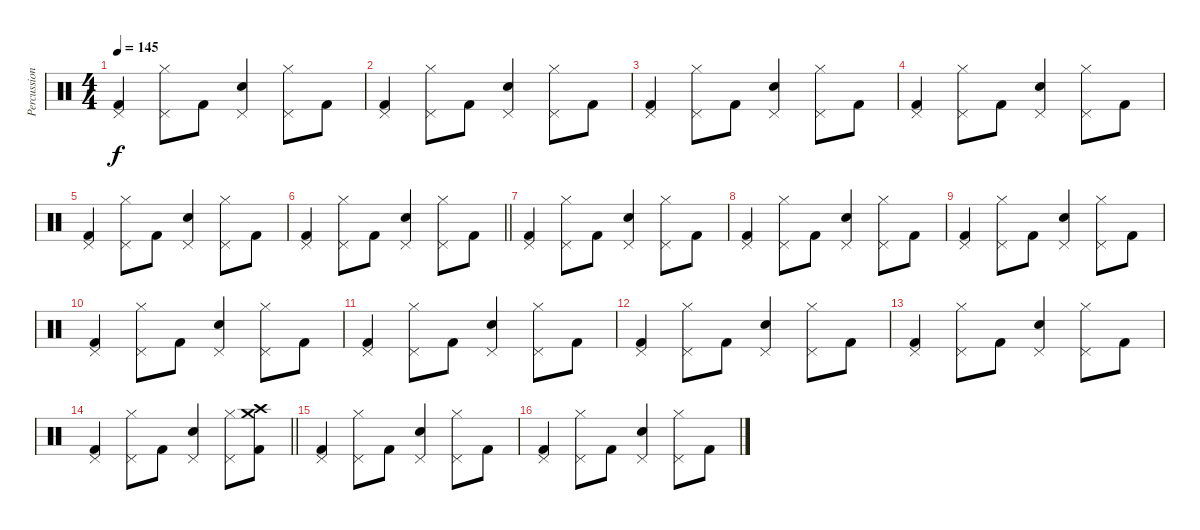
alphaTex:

\track ("Percussion" "Percussion") {instrument percussion}
\staff {score}
\articulation defaults
\ts (4 4)
\tempo 145
\clef neutral
\ks c
("Kick (hit) 2" "Pedal Hi-Hat (hit)").4{dy f} ("Hi-Hat (closed)" "Pedal Hi-Hat (hit)").8 "Kick (hit) 2".8 ("Snare (hit) 2" "Pedal Hi-Hat (hit)").4 ("Hi-Hat (closed)" "Pedal Hi-Hat (hit)").8 "Kick (hit) 2".8 |
("Kick (hit) 2" "Pedal Hi-Hat (hit)").4 ("Hi-Hat (closed)" "Pedal Hi-Hat (hit)").8 "Kick (hit) 2".8 ("Snare (hit) 2" "Pedal Hi-Hat (hit)").4 ("Hi-Hat (closed)" "Pedal Hi-Hat (hit)").8 "Kick (hit) 2".8 |
("Kick (hit) 2" "Pedal Hi-Hat (hit)").4 ("Hi-Hat (closed)" "Pedal Hi-Hat (hit)").8 "Kick (hit) 2".8 ("Snare (hit) 2" "Pedal Hi-Hat (hit)").4 ("Hi-Hat (closed)" "Pedal Hi-Hat (hit)").8 "Kick (hit) 2".8 |
("Kick (hit) 2" "Pedal Hi-Hat (hit)").4 ("Hi-Hat (closed)" "Pedal Hi-Hat (hit)").8 "Kick (hit) 2".8 ("Snare (hit) 2" "Pedal Hi-Hat (hit)").4 ("Hi-Hat (closed)" "Pedal Hi-Hat (hit)").8 "Kick (hit) 2".8 |
("Kick (hit) 2" "Pedal Hi-Hat (hit)").4 ("Hi-Hat (closed)" "Pedal Hi-Hat (hit)").8 "Kick (hit) 2".8 ("Snare (hit) 2" "Pedal Hi-Hat (hit)").4 ("Hi-Hat (closed)" "Pedal Hi-Hat (hit)").8 "Kick (hit) 2".8 |
\barLineRight lightlight
("Kick (hit) 2" "Pedal Hi-Hat (hit)").4 ("Hi-Hat (closed)" "Pedal Hi-Hat (hit)").8 "Kick (hit) 2".8 ("Snare (hit) 2" "Pedal Hi-Hat (hit)").4 ("Hi-Hat (closed)" "Pedal Hi-Hat (hit)").8 "Kick (hit) 2".8 |
("Kick (hit) 2" "Pedal Hi-Hat (hit)").4 ("Hi-Hat (closed)" "Pedal Hi-Hat (hit)").8 "Kick (hit) 2".8 ("Snare (hit) 2" "Pedal Hi-Hat (hit)").4 ("Hi-Hat (closed)" "Pedal Hi-Hat (hit)").8 "Kick (hit) 2".8 |
("Kick (hit) 2" "Pedal Hi-Hat (hit)").4 ("Hi-Hat (closed)" "Pedal Hi-Hat (hit)").8 "Kick (hit) 2".8 ("Snare (hit) 2" "Pedal Hi-Hat (hit)").4 ("Hi-Hat (closed)" "Pedal Hi-Hat (hit)").8 "Kick (hit) 2".8 |
("Kick (hit) 2" "Pedal Hi-Hat (hit)").4 ("Hi-Hat (closed)" "Pedal Hi-Hat (hit)").8 "Kick (hit) 2".8 ("Snare (hit) 2" "Pedal Hi-Hat (hit)").4 ("Hi-Hat (closed)" "Pedal Hi-Hat (hit)").8 "Kick (hit) 2".8 |
("Kick (hit) 2" "Pedal Hi-Hat (hit)").4 ("Hi-Hat (closed)" "Pedal Hi-Hat (hit)").8 "Kick (hit) 2".8 ("Snare (hit) 2" "Pedal Hi-Hat (hit)").4 ("Hi-Hat (closed)" "Pedal Hi-Hat (hit)").8 "Kick (hit) 2".8 |
("Kick (hit) 2" "Pedal Hi-Hat (hit)").4 ("Hi-Hat (closed)" "Pedal Hi-Hat (hit)").8 "Kick (hit) 2".8 ("Snare (hit) 2" "Pedal Hi-Hat (hit)").4 ("Hi-Hat (closed)" "Pedal Hi-Hat (hit)").8 "Kick (hit) 2".8 |
("Kick (hit) 2" "Pedal Hi-Hat (hit)").4 ("Hi-Hat (closed)" "Pedal Hi-Hat (hit)").8 "Kick (hit) 2".8 ("Snare (hit) 2" "Pedal Hi-Hat (hit)").4 ("Hi-Hat (closed)" "Pedal Hi-Hat (hit)").8 "Kick (hit) 2".8 |
("Kick (hit) 2" "Pedal Hi-Hat (hit)").4 ("Hi-Hat (closed)" "Pedal Hi-Hat (hit)").8 "Kick (hit) 2".8 ("Snare (hit) 2" "Pedal Hi-Hat (hit)").4 ("Hi-Hat (closed)" "Pedal Hi-Hat (hit)").8 "Kick (hit) 2".8 |
\barLineRight lightlight
("Kick (hit) 2" "Pedal Hi-Hat (hit)").4 ("Hi-Hat (closed)" "Pedal Hi-Hat (hit)").8 "Kick (hit) 2".8 ("Snare (hit) 2" "Pedal Hi-Hat (hit)").4 ("Hi-Hat (closed)" "Pedal Hi-Hat (hit)").8 ("Kick (hit) 2" "Crash high (hit)" "Crash medium (hit)").8 |
("Kick (hit) 2" "Pedal Hi-Hat (hit)").4 ("Hi-Hat (closed)" "Pedal Hi-Hat (hit)").8 "Kick (hit) 2".8 ("Snare (hit) 2" "Pedal Hi-Hat (hit)").4 ("Hi-Hat (closed)" "Pedal Hi-Hat (hit)").8 "Kick (hit) 2".8 |
("Kick (hit) 2" "Pedal Hi-Hat (hit)").4 ("Hi-Hat (closed)" "Pedal Hi-Hat (hit)").8 "Kick (hit) 2".8 ("Snare (hit) 2" "Pedal Hi-Hat (hit)").4 ("Hi-Hat (closed)" "Pedal Hi-Hat (hit)").8 "Kick (hit) 2".8
